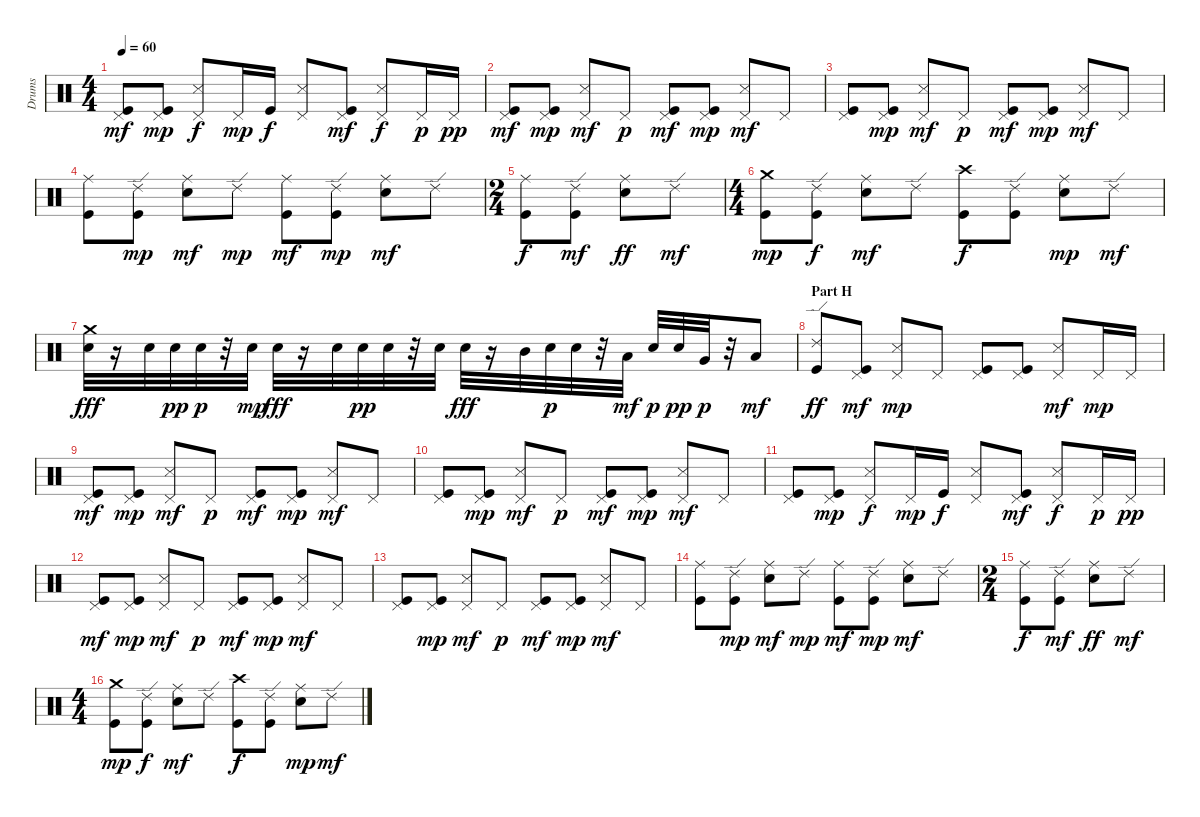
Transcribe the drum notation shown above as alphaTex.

\track ("Drums" "Drums") {instrument percussion}
\staff {score}
\articulation defaults
\ts (4 4)
\tempo 60
\clef neutral
\ks c
("Pedal Hi-Hat (hit)" "Kick (hit)").8{dy mf} ("Pedal Hi-Hat (hit)" "Kick (hit)").8{dy mp} ("Pedal Hi-Hat (hit)" "Snare (side stick) 3").8{dy f} "Pedal Hi-Hat (hit)".16{dy mp} "Kick (hit)".16{dy f} ("Pedal Hi-Hat (hit)" "Snare (side stick) 3").8 ("Pedal Hi-Hat (hit)" "Kick (hit)").8{dy mf} ("Pedal Hi-Hat (hit)" "Snare (side stick) 3").8{dy f} "Pedal Hi-Hat (hit)".16{dy p} "Pedal Hi-Hat (hit)".16{dy pp} |
("Pedal Hi-Hat (hit)" "Kick (hit)").8{dy mf} ("Pedal Hi-Hat (hit)" "Kick (hit)").8{dy mp} ("Pedal Hi-Hat (hit)" "Snare (side stick) 3").8{dy mf} "Pedal Hi-Hat (hit)".8{dy p} ("Pedal Hi-Hat (hit)" "Kick (hit)").8{dy mf} ("Pedal Hi-Hat (hit)" "Kick (hit)").8{dy mp} ("Pedal Hi-Hat (hit)" "Snare (side stick) 3").8{dy mf} "Pedal Hi-Hat (hit)".8 |
("Pedal Hi-Hat (hit)" "Kick (hit)").8 ("Pedal Hi-Hat (hit)" "Kick (hit)").8{dy mp} ("Pedal Hi-Hat (hit)" "Snare (side stick) 3").8{dy mf} "Pedal Hi-Hat (hit)".8{dy p} ("Pedal Hi-Hat (hit)" "Kick (hit)").8{dy mf} ("Pedal Hi-Hat (hit)" "Kick (hit)").8{dy mp} ("Pedal Hi-Hat (hit)" "Snare (side stick) 3").8{dy mf} "Pedal Hi-Hat (hit)".8 |
("Ride (middle)" "Kick (hit)").8{volume 11} ("Ride (edge) 2" "Kick (hit)").8{dy mp} ("Ride (middle)" "Electric Snare (hit)").8{dy mf} "Ride (edge) 2".8{dy mp} ("Ride (middle)" "Kick (hit)").8{dy mf} ("Ride (edge) 2" "Kick (hit)").8{dy mp} ("Ride (middle)" "Electric Snare (hit)").8{dy mf} "Ride (edge) 2".8 |
\ts (2 4)
("Ride (middle)" "Kick (hit)").8{dy f} ("Ride (edge) 2" "Kick (hit)").8{dy mf} ("Ride (middle)" "Electric Snare (hit)").8{dy ff} "Ride (edge) 2".8{dy mf} |
\ts (4 4)
("Crash medium (hit)" "Kick (hit)").8{dy mp} ("Ride (edge) 2" "Kick (hit)").8{dy f} ("Ride (middle)" "Electric Snare (hit)").8{dy mf} "Ride (edge) 2".8 ("Crash high (hit)" "Kick (hit)").8{dy f} ("Ride (edge) 2" "Kick (hit)").8 ("Ride (middle)" "Electric Snare (hit)").8{dy mp} "Ride (edge) 2".8{dy mf} |
("Crash medium (hit)" "Electric Snare (hit)").32{dy fff} r.16 "Electric Snare (hit)".32 "Electric Snare (hit)".32{dy pp} "Electric Snare (hit)".32{dy p} r.32 "Electric Snare (hit)".32{dy mp} "Electric Snare (hit)".32{dy fff} r.16 "Electric Snare (hit)".32 "Electric Snare (hit)".32{dy pp} "Electric Snare (hit)".32 r.32 "Electric Snare (hit)".32 "Electric Snare (hit)".32{dy fff} r.16 "Mid Tom (hit)".32 "Electric Snare (hit)".32{dy p} "Electric Snare (hit)".32 r.32 "Low Tom (hit)".32{dy mf} "Electric Snare (hit)".32{dy p} "Electric Snare (hit)".32{dy pp} "Very Low Tom (hit)".32{dy p} r.32 "Low Floor Tom (hit)".8{dy mf} |
\section ("" "Part H")
("Ride (edge) 2" "Kick (hit)").8{dy ff volume 10} ("Pedal Hi-Hat (hit)" "Kick (hit)").8{dy mf} ("Pedal Hi-Hat (hit)" "Snare (side stick) 3").8{dy mp} "Pedal Hi-Hat (hit)".8 ("Pedal Hi-Hat (hit)" "Kick (hit)").8 ("Pedal Hi-Hat (hit)" "Kick (hit)").8 ("Pedal Hi-Hat (hit)" "Snare (side stick) 3").8{dy mf} "Pedal Hi-Hat (hit)".16{dy mp} "Pedal Hi-Hat (hit)".16 |
("Pedal Hi-Hat (hit)" "Kick (hit)").8{dy mf} ("Pedal Hi-Hat (hit)" "Kick (hit)").8{dy mp} ("Pedal Hi-Hat (hit)" "Snare (side stick) 3").8{dy mf} "Pedal Hi-Hat (hit)".8{dy p} ("Pedal Hi-Hat (hit)" "Kick (hit)").8{dy mf} ("Pedal Hi-Hat (hit)" "Kick (hit)").8{dy mp} ("Pedal Hi-Hat (hit)" "Snare (side stick) 3").8{dy mf} "Pedal Hi-Hat (hit)".8 |
("Pedal Hi-Hat (hit)" "Kick (hit)").8 ("Pedal Hi-Hat (hit)" "Kick (hit)").8{dy mp} ("Pedal Hi-Hat (hit)" "Snare (side stick) 3").8{dy mf} "Pedal Hi-Hat (hit)".8{dy p} ("Pedal Hi-Hat (hit)" "Kick (hit)").8{dy mf} ("Pedal Hi-Hat (hit)" "Kick (hit)").8{dy mp} ("Pedal Hi-Hat (hit)" "Snare (side stick) 3").8{dy mf} "Pedal Hi-Hat (hit)".8 |
("Pedal Hi-Hat (hit)" "Kick (hit)").8 ("Pedal Hi-Hat (hit)" "Kick (hit)").8{dy mp} ("Pedal Hi-Hat (hit)" "Snare (side stick) 3").8{dy f} "Pedal Hi-Hat (hit)".16{dy mp} "Kick (hit)".16{dy f} ("Pedal Hi-Hat (hit)" "Snare (side stick) 3").8 ("Pedal Hi-Hat (hit)" "Kick (hit)").8{dy mf} ("Pedal Hi-Hat (hit)" "Snare (side stick) 3").8{dy f} "Pedal Hi-Hat (hit)".16{dy p} "Pedal Hi-Hat (hit)".16{dy pp} |
("Pedal Hi-Hat (hit)" "Kick (hit)").8{dy mf} ("Pedal Hi-Hat (hit)" "Kick (hit)").8{dy mp} ("Pedal Hi-Hat (hit)" "Snare (side stick) 3").8{dy mf} "Pedal Hi-Hat (hit)".8{dy p} ("Pedal Hi-Hat (hit)" "Kick (hit)").8{dy mf} ("Pedal Hi-Hat (hit)" "Kick (hit)").8{dy mp} ("Pedal Hi-Hat (hit)" "Snare (side stick) 3").8{dy mf} "Pedal Hi-Hat (hit)".8 |
("Pedal Hi-Hat (hit)" "Kick (hit)").8 ("Pedal Hi-Hat (hit)" "Kick (hit)").8{dy mp} ("Pedal Hi-Hat (hit)" "Snare (side stick) 3").8{dy mf} "Pedal Hi-Hat (hit)".8{dy p} ("Pedal Hi-Hat (hit)" "Kick (hit)").8{dy mf} ("Pedal Hi-Hat (hit)" "Kick (hit)").8{dy mp} ("Pedal Hi-Hat (hit)" "Snare (side stick) 3").8{dy mf} "Pedal Hi-Hat (hit)".8 |
("Ride (middle)" "Kick (hit)").8{volume 11} ("Ride (edge) 2" "Kick (hit)").8{dy mp} ("Ride (middle)" "Electric Snare (hit)").8{dy mf} "Ride (edge) 2".8{dy mp} ("Ride (middle)" "Kick (hit)").8{dy mf} ("Ride (edge) 2" "Kick (hit)").8{dy mp} ("Ride (middle)" "Electric Snare (hit)").8{dy mf} "Ride (edge) 2".8 |
\ts (2 4)
("Ride (middle)" "Kick (hit)").8{dy f} ("Ride (edge) 2" "Kick (hit)").8{dy mf} ("Ride (middle)" "Electric Snare (hit)").8{dy ff} "Ride (edge) 2".8{dy mf} |
\ts (4 4)
("Crash medium (hit)" "Kick (hit)").8{dy mp} ("Ride (edge) 2" "Kick (hit)").8{dy f} ("Ride (middle)" "Electric Snare (hit)").8{dy mf} "Ride (edge) 2".8 ("Crash high (hit)" "Kick (hit)").8{dy f} ("Ride (edge) 2" "Kick (hit)").8 ("Ride (middle)" "Electric Snare (hit)").8{dy mp} "Ride (edge) 2".8{dy mf}
